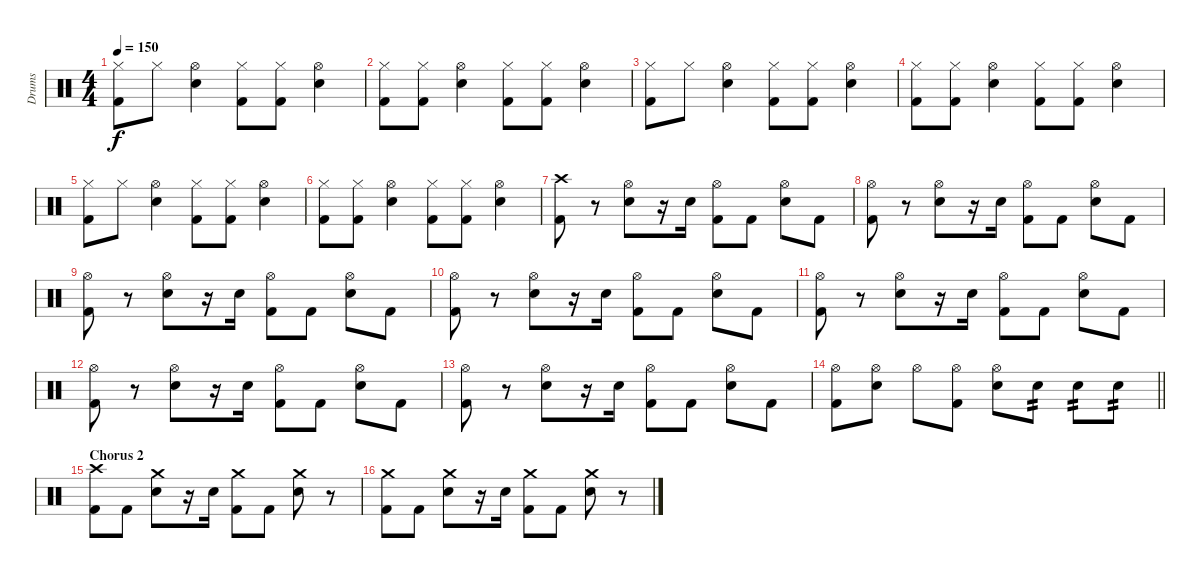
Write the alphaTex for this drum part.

\track ("Drums" "Drums") {instrument percussion}
\staff {score}
\articulation defaults
\ts (4 4)
\tempo 150
\clef neutral
\ks c
("Hi-Hat (closed)" "Kick (hit) 2").8{dy f} "Hi-Hat (closed)".8 ("Hi-Hat (open)" "Electric Snare (hit)").4 ("Hi-Hat (closed)" "Kick (hit) 2").8 ("Hi-Hat (closed)" "Kick (hit) 2").8 ("Hi-Hat (open)" "Electric Snare (hit)").4 |
("Hi-Hat (closed)" "Kick (hit) 2").8 ("Hi-Hat (closed)" "Kick (hit) 2").8 ("Hi-Hat (open)" "Electric Snare (hit)").4 ("Hi-Hat (closed)" "Kick (hit) 2").8 ("Hi-Hat (closed)" "Kick (hit) 2").8 ("Hi-Hat (open)" "Electric Snare (hit)").4 |
("Hi-Hat (closed)" "Kick (hit) 2").8 "Hi-Hat (closed)".8 ("Hi-Hat (open)" "Electric Snare (hit)").4 ("Hi-Hat (closed)" "Kick (hit) 2").8 ("Hi-Hat (closed)" "Kick (hit) 2").8 ("Hi-Hat (open)" "Electric Snare (hit)").4 |
("Hi-Hat (closed)" "Kick (hit) 2").8 ("Hi-Hat (closed)" "Kick (hit) 2").8 ("Hi-Hat (open)" "Electric Snare (hit)").4 ("Hi-Hat (closed)" "Kick (hit) 2").8 ("Hi-Hat (closed)" "Kick (hit) 2").8 ("Hi-Hat (open)" "Electric Snare (hit)").4 |
("Hi-Hat (closed)" "Kick (hit) 2").8 "Hi-Hat (closed)".8 ("Hi-Hat (open)" "Electric Snare (hit)").4 ("Hi-Hat (closed)" "Kick (hit) 2").8 ("Hi-Hat (closed)" "Kick (hit) 2").8 ("Hi-Hat (open)" "Electric Snare (hit)").4 |
("Hi-Hat (closed)" "Kick (hit) 2").8 ("Hi-Hat (closed)" "Kick (hit) 2").8 ("Hi-Hat (open)" "Electric Snare (hit)").4 ("Hi-Hat (closed)" "Kick (hit) 2").8 ("Hi-Hat (closed)" "Kick (hit) 2").8 ("Hi-Hat (open)" "Electric Snare (hit)").4 |
("Crash high (hit)" "Kick (hit) 2").8 r.8 ("Hi-Hat (open)" "Electric Snare (hit)").8 r.16 "Electric Snare (hit)".16 ("Hi-Hat (open)" "Kick (hit) 2").8 "Kick (hit) 2".8 ("Hi-Hat (open)" "Electric Snare (hit)").8 "Kick (hit) 2".8 |
("Hi-Hat (open)" "Kick (hit) 2").8 r.8 ("Hi-Hat (open)" "Electric Snare (hit)").8 r.16 "Electric Snare (hit)".16 ("Hi-Hat (open)" "Kick (hit) 2").8 "Kick (hit) 2".8 ("Hi-Hat (open)" "Electric Snare (hit)").8 "Kick (hit) 2".8 |
("Hi-Hat (open)" "Kick (hit) 2").8 r.8 ("Hi-Hat (open)" "Electric Snare (hit)").8 r.16 "Electric Snare (hit)".16 ("Hi-Hat (open)" "Kick (hit) 2").8 "Kick (hit) 2".8 ("Hi-Hat (open)" "Electric Snare (hit)").8 "Kick (hit) 2".8 |
("Hi-Hat (open)" "Kick (hit) 2").8 r.8 ("Hi-Hat (open)" "Electric Snare (hit)").8 r.16 "Electric Snare (hit)".16 ("Hi-Hat (open)" "Kick (hit) 2").8 "Kick (hit) 2".8 ("Hi-Hat (open)" "Electric Snare (hit)").8 "Kick (hit) 2".8 |
("Hi-Hat (open)" "Kick (hit) 2").8 r.8 ("Hi-Hat (open)" "Electric Snare (hit)").8 r.16 "Electric Snare (hit)".16 ("Hi-Hat (open)" "Kick (hit) 2").8 "Kick (hit) 2".8 ("Hi-Hat (open)" "Electric Snare (hit)").8 "Kick (hit) 2".8 |
("Hi-Hat (open)" "Kick (hit) 2").8 r.8 ("Hi-Hat (open)" "Electric Snare (hit)").8 r.16 "Electric Snare (hit)".16 ("Hi-Hat (open)" "Kick (hit) 2").8 "Kick (hit) 2".8 ("Hi-Hat (open)" "Electric Snare (hit)").8 "Kick (hit) 2".8 |
("Hi-Hat (open)" "Kick (hit) 2").8 r.8 ("Hi-Hat (open)" "Electric Snare (hit)").8 r.16 "Electric Snare (hit)".16 ("Hi-Hat (open)" "Kick (hit) 2").8 "Kick (hit) 2".8 ("Hi-Hat (open)" "Electric Snare (hit)").8 "Kick (hit) 2".8 |
\barLineRight lightlight
("Hi-Hat (open)" "Kick (hit) 2").8 ("Hi-Hat (open)" "Electric Snare (hit)").8 "Hi-Hat (open)".8 ("Hi-Hat (open)" "Kick (hit) 2").8 ("Hi-Hat (open)" "Electric Snare (hit)").8 "Electric Snare (hit)".8{tp 2} "Electric Snare (hit)".8{tp 2} "Electric Snare (hit)".8{tp 2} |
\section ("" "Chorus 2")
("Crash high (hit)" "Kick (hit) 2").8 "Kick (hit) 2".8 ("Crash medium (hit)" "Electric Snare (hit)").8 r.16 "Electric Snare (hit)".16 ("Crash medium (hit)" "Kick (hit) 2").8 "Kick (hit) 2".8 ("Crash medium (hit)" "Electric Snare (hit)").8 r.8 |
("Crash medium (hit)" "Kick (hit) 2").8 "Kick (hit) 2".8 ("Crash medium (hit)" "Electric Snare (hit)").8 r.16 "Electric Snare (hit)".16 ("Crash medium (hit)" "Kick (hit) 2").8 "Kick (hit) 2".8 ("Crash medium (hit)" "Electric Snare (hit)").8 r.8
